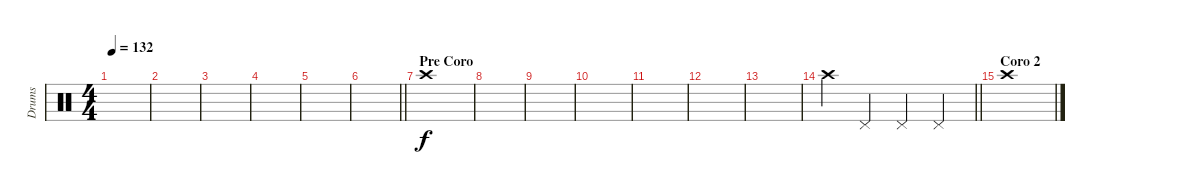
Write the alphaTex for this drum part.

\track ("Drums" "Drums") {instrument percussion}
\staff {score}
\articulation defaults
\ts (4 4)
\tempo 132
\clef neutral
\ks c
|
|
|
|
|
\barLineRight lightlight
|
\section ("" "Pre Coro")
"Crash high (hit)".1 |
|
|
|
|
|
|
\barLineRight lightlight "Crash high (hit)".4 "Pedal Hi-Hat (hit)".4 "Pedal Hi-Hat (hit)".4 "Pedal Hi-Hat (hit)".4
|
\section ("" "Coro 2")
"Crash high (hit)".1
